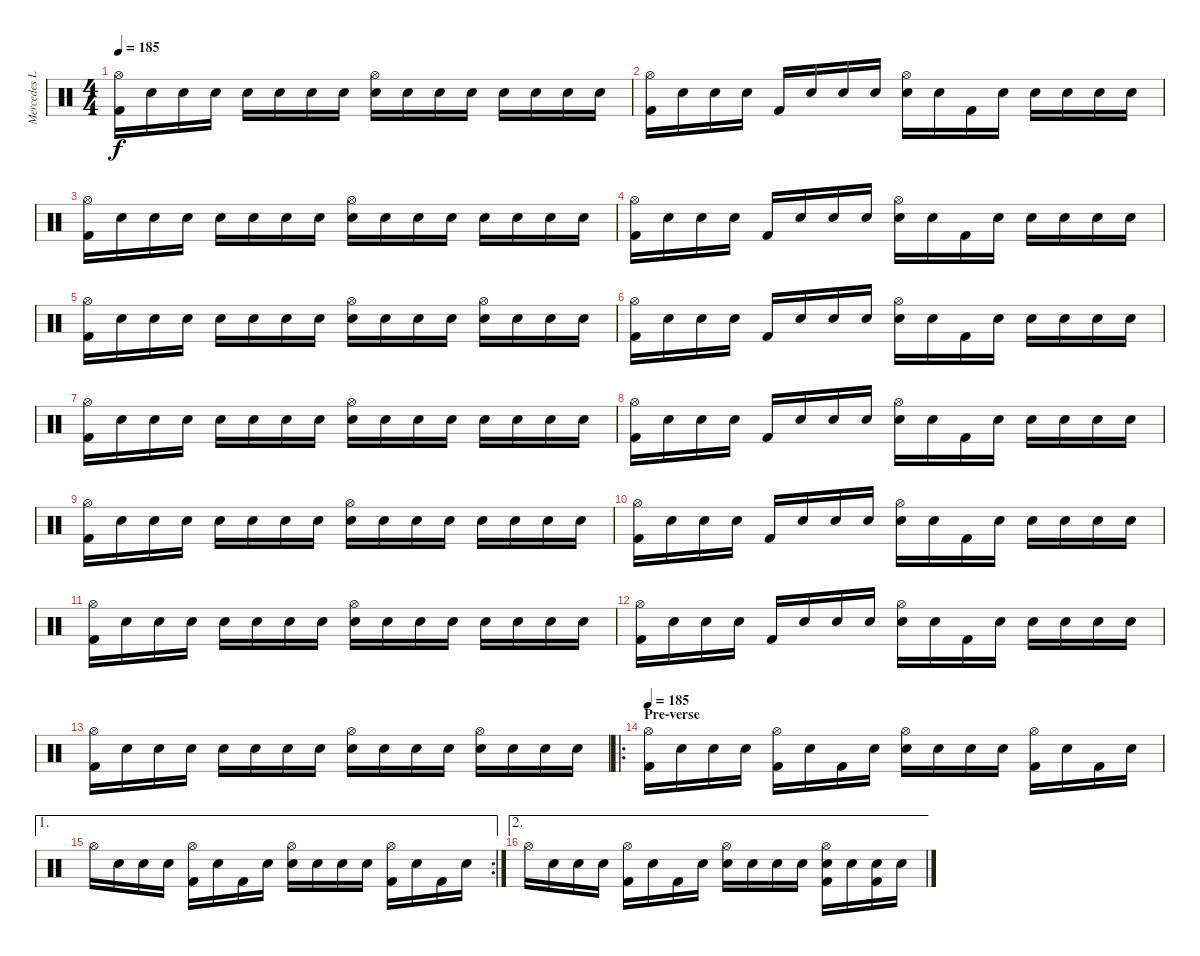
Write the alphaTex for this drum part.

\track ("Mercedes Lander - Drums" "Mercedes L") {instrument percussion}
\staff {score}
\articulation defaults
\ts (4 4)
\tempo 185
\clef neutral
\ks c
("Hi-Hat (open)" "Kick (hit) 2").16{dy f} "Snare (hit)".16 "Snare (hit)".16 "Snare (hit)".16 "Snare (hit)".16 "Snare (hit)".16 "Snare (hit)".16 "Snare (hit)".16 ("Hi-Hat (open)" "Electric Snare (hit)").16 "Snare (hit)".16 "Snare (hit)".16 "Snare (hit)".16 "Snare (hit)".16 "Snare (hit)".16 "Snare (hit)".16 "Snare (hit)".16 |
("Hi-Hat (open)" "Kick (hit) 2").16 "Snare (hit)".16 "Electric Snare (hit)".16 "Snare (hit)".16 "Kick (hit) 2".16 "Snare (hit)".16 "Snare (hit)".16 "Snare (hit)".16 ("Hi-Hat (open)" "Electric Snare (hit)").16 "Snare (hit)".16 "Kick (hit) 2".16 "Snare (hit)".16 "Snare (hit)".16 "Snare (hit)".16 "Snare (hit)".16 "Snare (hit)".16 |
("Hi-Hat (open)" "Kick (hit) 2").16 "Snare (hit)".16 "Snare (hit)".16 "Snare (hit)".16 "Snare (hit)".16 "Snare (hit)".16 "Snare (hit)".16 "Snare (hit)".16 ("Hi-Hat (open)" "Electric Snare (hit)").16 "Snare (hit)".16 "Snare (hit)".16 "Snare (hit)".16 "Snare (hit)".16 "Snare (hit)".16 "Snare (hit)".16 "Snare (hit)".16 |
("Hi-Hat (open)" "Kick (hit) 2").16 "Snare (hit)".16 "Electric Snare (hit)".16 "Snare (hit)".16 "Kick (hit) 2".16 "Snare (hit)".16 "Snare (hit)".16 "Snare (hit)".16 ("Hi-Hat (open)" "Electric Snare (hit)").16 "Snare (hit)".16 "Kick (hit) 2".16 "Snare (hit)".16 "Snare (hit)".16 "Snare (hit)".16 "Snare (hit)".16 "Snare (hit)".16 |
("Hi-Hat (open)" "Kick (hit) 2").16 "Snare (hit)".16 "Snare (hit)".16 "Snare (hit)".16 "Snare (hit)".16 "Snare (hit)".16 "Snare (hit)".16 "Snare (hit)".16 ("Hi-Hat (open)" "Electric Snare (hit)").16 "Snare (hit)".16 "Snare (hit)".16 "Snare (hit)".16 ("Hi-Hat (open)" "Electric Snare (hit)").16 "Snare (hit)".16 "Snare (hit)".16 "Snare (hit)".16 |
("Hi-Hat (open)" "Kick (hit) 2").16 "Snare (hit)".16 "Electric Snare (hit)".16 "Snare (hit)".16 "Kick (hit) 2".16 "Snare (hit)".16 "Snare (hit)".16 "Snare (hit)".16 ("Hi-Hat (open)" "Electric Snare (hit)").16 "Snare (hit)".16 "Kick (hit) 2".16 "Snare (hit)".16 "Snare (hit)".16 "Snare (hit)".16 "Snare (hit)".16 "Snare (hit)".16 |
("Hi-Hat (open)" "Kick (hit) 2").16 "Snare (hit)".16 "Snare (hit)".16 "Snare (hit)".16 "Snare (hit)".16 "Snare (hit)".16 "Snare (hit)".16 "Snare (hit)".16 ("Hi-Hat (open)" "Electric Snare (hit)").16 "Snare (hit)".16 "Snare (hit)".16 "Snare (hit)".16 "Snare (hit)".16 "Snare (hit)".16 "Snare (hit)".16 "Snare (hit)".16 |
("Hi-Hat (open)" "Kick (hit) 2").16 "Snare (hit)".16 "Electric Snare (hit)".16 "Snare (hit)".16 "Kick (hit) 2".16 "Snare (hit)".16 "Snare (hit)".16 "Snare (hit)".16 ("Hi-Hat (open)" "Electric Snare (hit)").16 "Snare (hit)".16 "Kick (hit) 2".16 "Snare (hit)".16 "Snare (hit)".16 "Snare (hit)".16 "Snare (hit)".16 "Snare (hit)".16 |
("Hi-Hat (open)" "Kick (hit) 2").16 "Snare (hit)".16 "Snare (hit)".16 "Snare (hit)".16 "Snare (hit)".16 "Snare (hit)".16 "Snare (hit)".16 "Snare (hit)".16 ("Hi-Hat (open)" "Electric Snare (hit)").16 "Snare (hit)".16 "Snare (hit)".16 "Snare (hit)".16 "Snare (hit)".16 "Snare (hit)".16 "Snare (hit)".16 "Snare (hit)".16 |
("Hi-Hat (open)" "Kick (hit) 2").16 "Snare (hit)".16 "Electric Snare (hit)".16 "Snare (hit)".16 "Kick (hit) 2".16 "Snare (hit)".16 "Snare (hit)".16 "Snare (hit)".16 ("Hi-Hat (open)" "Electric Snare (hit)").16 "Snare (hit)".16 "Kick (hit) 2".16 "Snare (hit)".16 "Snare (hit)".16 "Snare (hit)".16 "Snare (hit)".16 "Snare (hit)".16 |
("Hi-Hat (open)" "Kick (hit) 2").16 "Snare (hit)".16 "Snare (hit)".16 "Snare (hit)".16 "Snare (hit)".16 "Snare (hit)".16 "Snare (hit)".16 "Snare (hit)".16 ("Hi-Hat (open)" "Electric Snare (hit)").16 "Snare (hit)".16 "Snare (hit)".16 "Snare (hit)".16 "Snare (hit)".16 "Snare (hit)".16 "Snare (hit)".16 "Snare (hit)".16 |
("Hi-Hat (open)" "Kick (hit) 2").16 "Snare (hit)".16 "Electric Snare (hit)".16 "Snare (hit)".16 "Kick (hit) 2".16 "Snare (hit)".16 "Snare (hit)".16 "Snare (hit)".16 ("Hi-Hat (open)" "Electric Snare (hit)").16 "Snare (hit)".16 "Kick (hit) 2".16 "Snare (hit)".16 "Snare (hit)".16 "Snare (hit)".16 "Snare (hit)".16 "Snare (hit)".16 |
("Hi-Hat (open)" "Kick (hit) 2").16 "Snare (hit)".16 "Snare (hit)".16 "Snare (hit)".16 "Snare (hit)".16 "Snare (hit)".16 "Snare (hit)".16 "Snare (hit)".16 ("Hi-Hat (open)" "Electric Snare (hit)").16 "Snare (hit)".16 "Snare (hit)".16 "Snare (hit)".16 ("Hi-Hat (open)" "Electric Snare (hit)").16 "Snare (hit)".16 "Snare (hit)".16 "Snare (hit)".16 |
\ro
\section ("" "Pre-verse")
\tempo 185
("Hi-Hat (open)" "Kick (hit) 2").16{volume 16 balance 8} "Snare (hit)".16 "Snare (hit)".16 "Snare (hit)".16 ("Hi-Hat (open)" "Kick (hit) 2").16 "Snare (hit)".16 "Kick (hit) 2".16 "Snare (hit)".16 ("Hi-Hat (open)" "Snare (hit) 2").16 "Snare (hit)".16 "Snare (hit)".16 "Snare (hit)".16 ("Hi-Hat (open)" "Kick (hit) 2").16 "Snare (hit)".16 "Kick (hit) 2".16 "Snare (hit)".16 |
\ae 1
\rc 2 "Hi-Hat (open)".16 "Snare (hit)".16 "Snare (hit)".16 "Snare (hit)".16
("Hi-Hat (open)" "Kick (hit) 2").16 "Snare (hit)".16 "Kick (hit) 2".16 "Snare (hit)".16 ("Hi-Hat (open)" "Electric Snare (hit)").16 "Snare (hit)".16 "Snare (hit)".16 "Snare (hit)".16 ("Hi-Hat (open)" "Kick (hit) 2").16 "Snare (hit)".16 "Kick (hit) 2".16 "Snare (hit)".16 |
\ae 2 "Hi-Hat (open)".16 "Snare (hit)".16 "Snare (hit)".16 "Snare (hit)".16
("Hi-Hat (open)" "Kick (hit) 2").16 "Snare (hit)".16 "Kick (hit) 2".16 "Snare (hit)".16 ("Hi-Hat (open)" "Electric Snare (hit)").16 "Electric Snare (hit)".16 "Electric Snare (hit)".16 "Electric Snare (hit)".16 ("Hi-Hat (open)" "Electric Snare (hit)" "Kick (hit) 2").16 "Snare (hit)".16 ("Electric Snare (hit)" "Kick (hit) 2").16 "Snare (hit)".16
